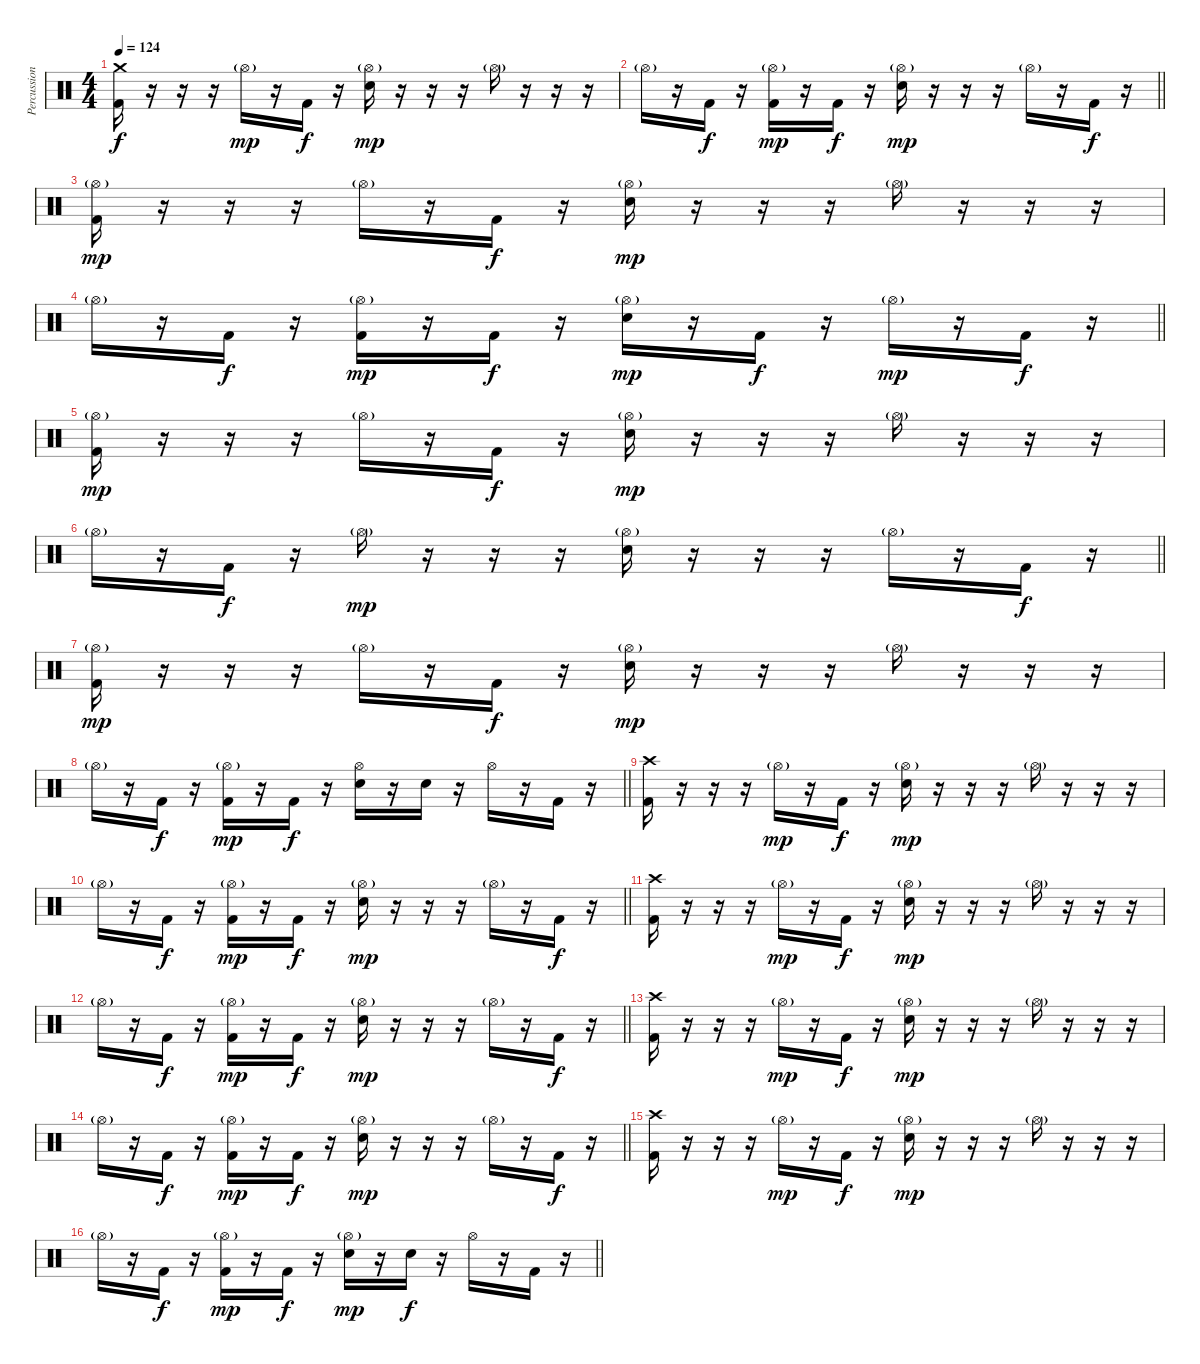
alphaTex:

\track ("Percussion" "Percussion") {instrument percussion}
\staff {score}
\articulation defaults
\ts (4 4)
\section ("" "")
\tempo 124
\clef neutral
\ks c
("Kick (hit) 2" "Crash medium (hit)").16{dy f} r.16 r.16 r.16 "Hi-Hat (open)"{g}.16{dy mp} r.16 "Kick (hit) 2".16{dy f} r.16 ("Electric Snare (hit)" "Hi-Hat (open)"{g}).16{dy mp} r.16 r.16 r.16 "Hi-Hat (open)"{g}.16 r.16 r.16 r.16 |
\barLineRight lightlight "Hi-Hat (open)"{g}.16
r.16 "Kick (hit) 2".16{dy f} r.16 ("Kick (hit) 2" "Hi-Hat (open)"{g}).16{dy mp} r.16 "Kick (hit) 2".16{dy f} r.16 ("Electric Snare (hit)" "Hi-Hat (open)"{g}).16{dy mp} r.16 r.16 r.16 "Hi-Hat (open)"{g}.16 r.16 "Kick (hit) 2".16{dy f} r.16 |
("Kick (hit) 2" "Hi-Hat (open)"{g}).16{dy mp} r.16 r.16 r.16 "Hi-Hat (open)"{g}.16 r.16 "Kick (hit) 2".16{dy f} r.16 ("Electric Snare (hit)" "Hi-Hat (open)"{g}).16{dy mp} r.16 r.16 r.16 "Hi-Hat (open)"{g}.16 r.16 r.16 r.16 |
\barLineRight lightlight "Hi-Hat (open)"{g}.16
r.16 "Kick (hit) 2".16{dy f} r.16 ("Kick (hit) 2" "Hi-Hat (open)"{g}).16{dy mp} r.16 "Kick (hit) 2".16{dy f} r.16 ("Electric Snare (hit)" "Hi-Hat (open)"{g}).16{dy mp} r.16 "Kick (hit) 2".16{dy f} r.16 "Hi-Hat (open)"{g}.16{dy mp} r.16 "Kick (hit) 2".16{dy f} r.16 |
("Kick (hit) 2" "Hi-Hat (open)"{g}).16{dy mp} r.16 r.16 r.16 "Hi-Hat (open)"{g}.16 r.16 "Kick (hit) 2".16{dy f} r.16 ("Electric Snare (hit)" "Hi-Hat (open)"{g}).16{dy mp} r.16 r.16 r.16 "Hi-Hat (open)"{g}.16 r.16 r.16 r.16 |
\barLineRight lightlight "Hi-Hat (open)"{g}.16
r.16 "Kick (hit) 2".16{dy f} r.16 "Hi-Hat (open)"{g}.16{dy mp} r.16 r.16 r.16 ("Electric Snare (hit)" "Hi-Hat (open)"{g}).16 r.16 r.16 r.16 "Hi-Hat (open)"{g}.16 r.16 "Kick (hit) 2".16{dy f} r.16 |
("Kick (hit) 2" "Hi-Hat (open)"{g}).16{dy mp} r.16 r.16 r.16 "Hi-Hat (open)"{g}.16 r.16 "Kick (hit) 2".16{dy f} r.16 ("Electric Snare (hit)" "Hi-Hat (open)"{g}).16{dy mp} r.16 r.16 r.16 "Hi-Hat (open)"{g}.16 r.16 r.16 r.16 |
\barLineRight lightlight "Hi-Hat (open)"{g}.16
r.16 "Kick (hit) 2".16{dy f} r.16 ("Kick (hit) 2" "Hi-Hat (open)"{g}).16{dy mp} r.16 "Kick (hit) 2".16{dy f} r.16 ("Electric Snare (hit)" "Hi-Hat (open)").16 r.16 "Electric Snare (hit)".16 r.16 "Hi-Hat (open)".16 r.16 "Kick (hit) 2".16 r.16 |
("Kick (hit) 2" "Crash high (hit)").16 r.16 r.16 r.16 "Hi-Hat (open)"{g}.16{dy mp} r.16 "Kick (hit) 2".16{dy f} r.16 ("Electric Snare (hit)" "Hi-Hat (open)"{g}).16{dy mp} r.16 r.16 r.16 "Hi-Hat (open)"{g}.16 r.16 r.16 r.16 |
\barLineRight lightlight "Hi-Hat (open)"{g}.16
r.16 "Kick (hit) 2".16{dy f} r.16 ("Kick (hit) 2" "Hi-Hat (open)"{g}).16{dy mp} r.16 "Kick (hit) 2".16{dy f} r.16 ("Electric Snare (hit)" "Hi-Hat (open)"{g}).16{dy mp} r.16 r.16 r.16 "Hi-Hat (open)"{g}.16 r.16 "Kick (hit) 2".16{dy f} r.16 |
("Kick (hit) 2" "Crash high (hit)").16 r.16 r.16 r.16 "Hi-Hat (open)"{g}.16{dy mp} r.16 "Kick (hit) 2".16{dy f} r.16 ("Electric Snare (hit)" "Hi-Hat (open)"{g}).16{dy mp} r.16 r.16 r.16 "Hi-Hat (open)"{g}.16 r.16 r.16 r.16 |
\barLineRight lightlight "Hi-Hat (open)"{g}.16
r.16 "Kick (hit) 2".16{dy f} r.16 ("Kick (hit) 2" "Hi-Hat (open)"{g}).16{dy mp} r.16 "Kick (hit) 2".16{dy f} r.16 ("Electric Snare (hit)" "Hi-Hat (open)"{g}).16{dy mp} r.16 r.16 r.16 "Hi-Hat (open)"{g}.16 r.16 "Kick (hit) 2".16{dy f} r.16 |
("Kick (hit) 2" "Crash high (hit)").16 r.16 r.16 r.16 "Hi-Hat (open)"{g}.16{dy mp} r.16 "Kick (hit) 2".16{dy f} r.16 ("Electric Snare (hit)" "Hi-Hat (open)"{g}).16{dy mp} r.16 r.16 r.16 "Hi-Hat (open)"{g}.16 r.16 r.16 r.16 |
\barLineRight lightlight "Hi-Hat (open)"{g}.16
r.16 "Kick (hit) 2".16{dy f} r.16 ("Kick (hit) 2" "Hi-Hat (open)"{g}).16{dy mp} r.16 "Kick (hit) 2".16{dy f} r.16 ("Electric Snare (hit)" "Hi-Hat (open)"{g}).16{dy mp} r.16 r.16 r.16 "Hi-Hat (open)"{g}.16 r.16 "Kick (hit) 2".16{dy f} r.16 |
("Kick (hit) 2" "Crash high (hit)").16 r.16 r.16 r.16 "Hi-Hat (open)"{g}.16{dy mp} r.16 "Kick (hit) 2".16{dy f} r.16 ("Electric Snare (hit)" "Hi-Hat (open)"{g}).16{dy mp} r.16 r.16 r.16 "Hi-Hat (open)"{g}.16 r.16 r.16 r.16 |
\barLineRight lightlight "Hi-Hat (open)"{g}.16
r.16 "Kick (hit) 2".16{dy f} r.16 ("Kick (hit) 2" "Hi-Hat (open)"{g}).16{dy mp} r.16 "Kick (hit) 2".16{dy f} r.16 ("Electric Snare (hit)" "Hi-Hat (open)"{g}).16{dy mp} r.16 "Electric Snare (hit)".16{dy f} r.16 "Hi-Hat (open)".16 r.16 "Kick (hit) 2".16 r.16
